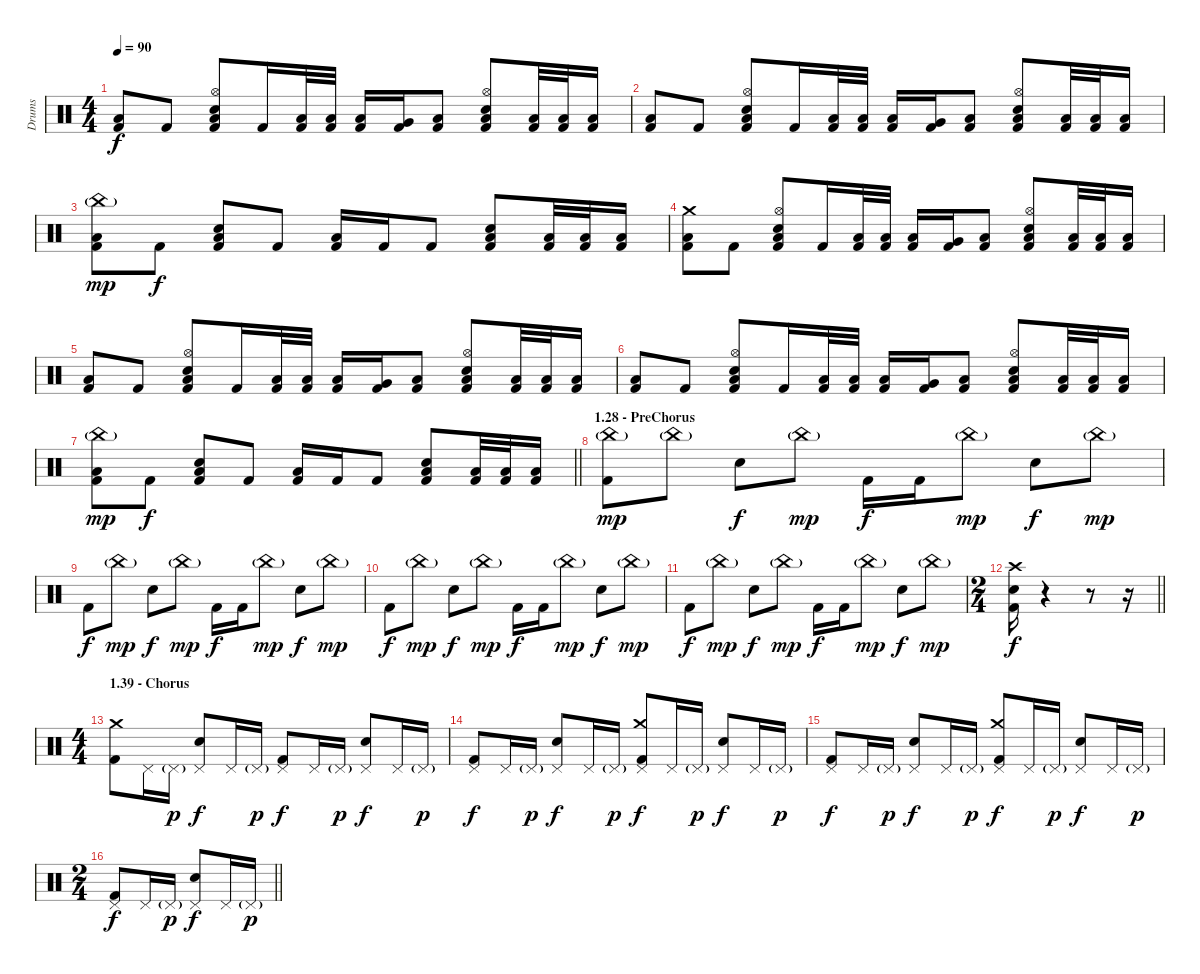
\track ("Drums" "Drums") {instrument percussion}
\staff {score}
\articulation defaults
\ts (4 4)
\tempo 90
\clef neutral
\ks c
("Low Floor Tom (hit)" "Kick (hit) 2").8{dy f} "Kick (hit) 2".8 ("Hi-Hat (open)" "Electric Snare (hit)" "Low Floor Tom (hit)" "Kick (hit) 2").8 "Kick (hit) 2".16 ("Low Tom (hit)" "Kick (hit) 2").32 ("Low Tom (hit)" "Kick (hit) 2").32 ("Low Tom (hit)" "Kick (hit) 2").16 ("Very Low Tom (hit)" "Kick (hit) 2").16 ("Low Floor Tom (hit)" "Kick (hit) 2").8 ("Hi-Hat (open)" "Electric Snare (hit)" "Low Floor Tom (hit)" "Kick (hit) 2").8 ("Low Tom (hit)" "Kick (hit) 2").32 ("Low Tom (hit)" "Kick (hit) 2").32 ("Low Tom (hit)" "Kick (hit) 2").16 |
("Low Floor Tom (hit)" "Kick (hit) 2").8 "Kick (hit) 2".8 ("Hi-Hat (open)" "Electric Snare (hit)" "Low Floor Tom (hit)" "Kick (hit) 2").8 "Kick (hit) 2".16 ("Low Tom (hit)" "Kick (hit) 2").32 ("Low Tom (hit)" "Kick (hit) 2").32 ("Low Tom (hit)" "Kick (hit) 2").16 ("Very Low Tom (hit)" "Kick (hit) 2").16 ("Low Floor Tom (hit)" "Kick (hit) 2").8 ("Hi-Hat (open)" "Electric Snare (hit)" "Low Floor Tom (hit)" "Kick (hit) 2").8 ("Low Tom (hit)" "Kick (hit) 2").32 ("Low Tom (hit)" "Kick (hit) 2").32 ("Low Tom (hit)" "Kick (hit) 2").16 |
("China (hit)"{g} "Low Floor Tom (hit)" "Kick (hit) 2").8{dy mp} "Kick (hit) 2".8{dy f} ("Electric Snare (hit)" "Low Floor Tom (hit)" "Kick (hit) 2").8 "Kick (hit) 2".8 ("Low Floor Tom (hit)" "Kick (hit) 2").16 "Kick (hit) 2".16 "Kick (hit) 2".8 ("Electric Snare (hit)" "Low Floor Tom (hit)" "Kick (hit) 2").8 ("Low Tom (hit)" "Kick (hit) 2").32 ("Low Tom (hit)" "Kick (hit) 2").32 ("Low Tom (hit)" "Kick (hit) 2").16 |
("Crash medium (hit)" "Low Floor Tom (hit)" "Kick (hit) 2").8 "Kick (hit) 2".8 ("Hi-Hat (open)" "Electric Snare (hit)" "Low Floor Tom (hit)" "Kick (hit) 2").8 "Kick (hit) 2".16 ("Low Tom (hit)" "Kick (hit) 2").32 ("Low Tom (hit)" "Kick (hit) 2").32 ("Low Tom (hit)" "Kick (hit) 2").16 ("Very Low Tom (hit)" "Kick (hit) 2").16 ("Low Floor Tom (hit)" "Kick (hit) 2").8 ("Hi-Hat (open)" "Electric Snare (hit)" "Low Floor Tom (hit)" "Kick (hit) 2").8 ("Low Tom (hit)" "Kick (hit) 2").32 ("Low Tom (hit)" "Kick (hit) 2").32 ("Low Tom (hit)" "Kick (hit) 2").16 |
("Low Floor Tom (hit)" "Kick (hit) 2").8 "Kick (hit) 2".8 ("Hi-Hat (open)" "Electric Snare (hit)" "Low Floor Tom (hit)" "Kick (hit) 2").8 "Kick (hit) 2".16 ("Low Tom (hit)" "Kick (hit) 2").32 ("Low Tom (hit)" "Kick (hit) 2").32 ("Low Tom (hit)" "Kick (hit) 2").16 ("Very Low Tom (hit)" "Kick (hit) 2").16 ("Low Floor Tom (hit)" "Kick (hit) 2").8 ("Hi-Hat (open)" "Electric Snare (hit)" "Low Floor Tom (hit)" "Kick (hit) 2").8 ("Low Tom (hit)" "Kick (hit) 2").32 ("Low Tom (hit)" "Kick (hit) 2").32 ("Low Tom (hit)" "Kick (hit) 2").16 |
("Low Floor Tom (hit)" "Kick (hit) 2").8 "Kick (hit) 2".8 ("Hi-Hat (open)" "Electric Snare (hit)" "Low Floor Tom (hit)" "Kick (hit) 2").8 "Kick (hit) 2".16 ("Low Tom (hit)" "Kick (hit) 2").32 ("Low Tom (hit)" "Kick (hit) 2").32 ("Low Tom (hit)" "Kick (hit) 2").16 ("Very Low Tom (hit)" "Kick (hit) 2").16 ("Low Floor Tom (hit)" "Kick (hit) 2").8 ("Hi-Hat (open)" "Electric Snare (hit)" "Low Floor Tom (hit)" "Kick (hit) 2").8 ("Low Tom (hit)" "Kick (hit) 2").32 ("Low Tom (hit)" "Kick (hit) 2").32 ("Low Tom (hit)" "Kick (hit) 2").16 |
\barLineRight lightlight
("China (hit)"{g} "Low Floor Tom (hit)" "Kick (hit) 2").8{dy mp} "Kick (hit) 2".8{dy f} ("Electric Snare (hit)" "Low Floor Tom (hit)" "Kick (hit) 2").8 "Kick (hit) 2".8 ("Low Floor Tom (hit)" "Kick (hit) 2").16 "Kick (hit) 2".16 "Kick (hit) 2".8 ("Electric Snare (hit)" "Low Floor Tom (hit)" "Kick (hit) 2").8 ("Low Tom (hit)" "Kick (hit) 2").32 ("Low Tom (hit)" "Kick (hit) 2").32 ("Low Tom (hit)" "Kick (hit) 2").16 |
\section ("" "1.28 - PreChorus")
("China (hit)"{g} "Kick (hit) 2").8{dy mp} "China (hit)"{g}.8 "Electric Snare (hit)".8{dy f} "China (hit)"{g}.8{dy mp} "Kick (hit) 2".16{dy f} "Kick (hit) 2".16 "China (hit)"{g}.8{dy mp} "Electric Snare (hit)".8{dy f} "China (hit)"{g}.8{dy mp} |
"Kick (hit) 2".8{dy f} "China (hit)"{g}.8{dy mp} "Electric Snare (hit)".8{dy f} "China (hit)"{g}.8{dy mp} "Kick (hit) 2".16{dy f} "Kick (hit) 2".16 "China (hit)"{g}.8{dy mp} "Electric Snare (hit)".8{dy f} "China (hit)"{g}.8{dy mp} |
"Kick (hit) 2".8{dy f} "China (hit)"{g}.8{dy mp} "Electric Snare (hit)".8{dy f} "China (hit)"{g}.8{dy mp} "Kick (hit) 2".16{dy f} "Kick (hit) 2".16 "China (hit)"{g}.8{dy mp} "Electric Snare (hit)".8{dy f} "China (hit)"{g}.8{dy mp} |
"Kick (hit) 2".8{dy f} "China (hit)"{g}.8{dy mp} "Electric Snare (hit)".8{dy f} "China (hit)"{g}.8{dy mp} "Kick (hit) 2".16{dy f} "Kick (hit) 2".16 "China (hit)"{g}.8{dy mp} "Electric Snare (hit)".8{dy f} "China (hit)"{g}.8{dy mp} |
\ts (2 4)
\barLineRight lightlight
("Crash high (hit)" "Electric Snare (hit)" "Kick (hit) 2").16{dy f} r.4 r.8 r.16 |
\ts (4 4)
\section ("" "1.39 - Chorus")
("Crash medium (hit)" "Kick (hit) 2").8 "Pedal Hi-Hat (hit)".16 "Pedal Hi-Hat (hit)"{g}.16{dy p} ("Pedal Hi-Hat (hit)" "Electric Snare (hit)").8{dy f} "Pedal Hi-Hat (hit)".16 "Pedal Hi-Hat (hit)"{g}.16{dy p} ("Pedal Hi-Hat (hit)" "Kick (hit) 2").8{dy f} "Pedal Hi-Hat (hit)".16 "Pedal Hi-Hat (hit)"{g}.16{dy p} ("Pedal Hi-Hat (hit)" "Electric Snare (hit)").8{dy f} "Pedal Hi-Hat (hit)".16 "Pedal Hi-Hat (hit)"{g}.16{dy p} |
("Pedal Hi-Hat (hit)" "Kick (hit) 2").8{dy f} "Pedal Hi-Hat (hit)".16 "Pedal Hi-Hat (hit)"{g}.16{dy p} ("Pedal Hi-Hat (hit)" "Electric Snare (hit)").8{dy f} "Pedal Hi-Hat (hit)".16 "Pedal Hi-Hat (hit)"{g}.16{dy p} ("Crash medium (hit)" "Pedal Hi-Hat (hit)" "Kick (hit) 2").8{dy f} "Pedal Hi-Hat (hit)".16 "Pedal Hi-Hat (hit)"{g}.16{dy p} ("Pedal Hi-Hat (hit)" "Electric Snare (hit)").8{dy f} "Pedal Hi-Hat (hit)".16 "Pedal Hi-Hat (hit)"{g}.16{dy p} |
("Pedal Hi-Hat (hit)" "Kick (hit) 2").8{dy f} "Pedal Hi-Hat (hit)".16 "Pedal Hi-Hat (hit)"{g}.16{dy p} ("Pedal Hi-Hat (hit)" "Electric Snare (hit)").8{dy f} "Pedal Hi-Hat (hit)".16 "Pedal Hi-Hat (hit)"{g}.16{dy p} ("Crash medium (hit)" "Pedal Hi-Hat (hit)" "Kick (hit) 2").8{dy f} "Pedal Hi-Hat (hit)".16 "Pedal Hi-Hat (hit)"{g}.16{dy p} ("Pedal Hi-Hat (hit)" "Electric Snare (hit)").8{dy f} "Pedal Hi-Hat (hit)".16 "Pedal Hi-Hat (hit)"{g}.16{dy p} |
\ts (2 4)
\barLineRight lightlight
("Pedal Hi-Hat (hit)" "Kick (hit) 2").8{dy f} "Pedal Hi-Hat (hit)".16 "Pedal Hi-Hat (hit)"{g}.16{dy p} ("Pedal Hi-Hat (hit)" "Electric Snare (hit)").8{dy f} "Pedal Hi-Hat (hit)".16 "Pedal Hi-Hat (hit)"{g}.16{dy p}
